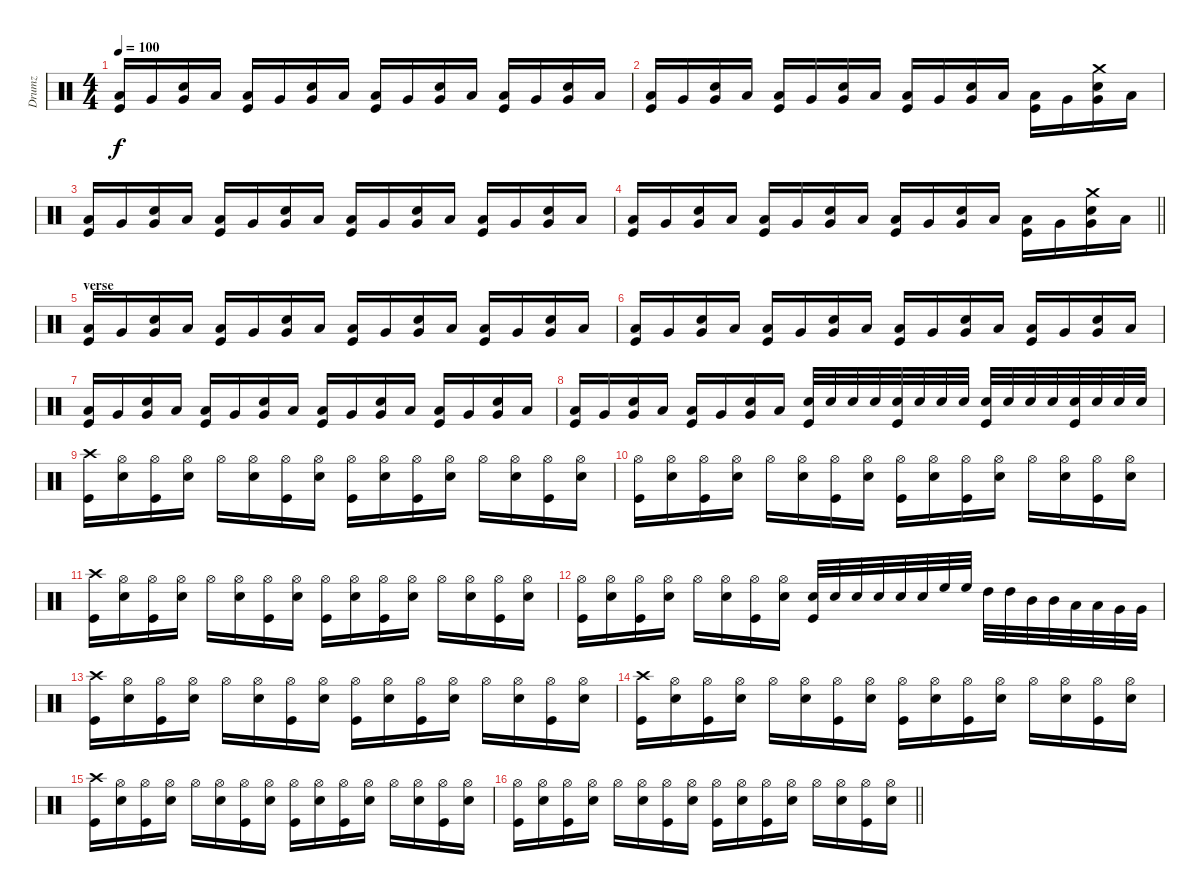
\track ("Drumz" "Drumz") {instrument percussion}
\staff {score}
\articulation defaults
\ts (4 4)
\tempo 100
\clef neutral
\ks c
("Low Tom (hit)" "Kick (hit)").16{dy f} "Very Low Tom (hit)".16 ("Electric Snare (hit)" "Very Low Tom (hit)").16 "Low Floor Tom (hit)".16 ("Low Tom (hit)" "Kick (hit)").16 "Very Low Tom (hit)".16 ("Electric Snare (hit)" "Very Low Tom (hit)").16 "Low Floor Tom (hit)".16 ("Low Tom (hit)" "Kick (hit)").16 "Very Low Tom (hit)".16 ("Electric Snare (hit)" "Very Low Tom (hit)").16 "Low Floor Tom (hit)".16 ("Low Tom (hit)" "Kick (hit)").16 "Very Low Tom (hit)".16 ("Electric Snare (hit)" "Very Low Tom (hit)").16 "Low Floor Tom (hit)".16 |
("Low Tom (hit)" "Kick (hit)").16 "Very Low Tom (hit)".16 ("Electric Snare (hit)" "Very Low Tom (hit)").16 "Low Floor Tom (hit)".16 ("Low Tom (hit)" "Kick (hit)").16 "Very Low Tom (hit)".16 ("Electric Snare (hit)" "Very Low Tom (hit)").16 "Low Floor Tom (hit)".16 ("Low Tom (hit)" "Kick (hit)").16 "Very Low Tom (hit)".16 ("Electric Snare (hit)" "Very Low Tom (hit)").16 "Low Floor Tom (hit)".16 ("Low Tom (hit)" "Kick (hit)").16 "Very Low Tom (hit)".16 ("Crash medium (hit)" "Electric Snare (hit)" "Very Low Tom (hit)").16 "Low Floor Tom (hit)".16 |
("Low Tom (hit)" "Kick (hit)").16 "Very Low Tom (hit)".16 ("Electric Snare (hit)" "Very Low Tom (hit)").16 "Low Floor Tom (hit)".16 ("Low Tom (hit)" "Kick (hit)").16 "Very Low Tom (hit)".16 ("Electric Snare (hit)" "Very Low Tom (hit)").16 "Low Floor Tom (hit)".16 ("Low Tom (hit)" "Kick (hit)").16 "Very Low Tom (hit)".16 ("Electric Snare (hit)" "Very Low Tom (hit)").16 "Low Floor Tom (hit)".16 ("Low Tom (hit)" "Kick (hit)").16 "Very Low Tom (hit)".16 ("Electric Snare (hit)" "Very Low Tom (hit)").16 "Low Floor Tom (hit)".16 |
\barLineRight lightlight
("Low Tom (hit)" "Kick (hit)").16 "Very Low Tom (hit)".16 ("Electric Snare (hit)" "Very Low Tom (hit)").16 "Low Floor Tom (hit)".16 ("Low Tom (hit)" "Kick (hit)").16 "Very Low Tom (hit)".16 ("Electric Snare (hit)" "Very Low Tom (hit)").16 "Low Floor Tom (hit)".16 ("Low Tom (hit)" "Kick (hit)").16 "Very Low Tom (hit)".16 ("Electric Snare (hit)" "Very Low Tom (hit)").16 "Low Floor Tom (hit)".16 ("Low Tom (hit)" "Kick (hit)").16 "Very Low Tom (hit)".16 ("Crash medium (hit)" "Electric Snare (hit)" "Very Low Tom (hit)").16 "Low Floor Tom (hit)".16 |
\section ("" "verse")
("Low Tom (hit)" "Kick (hit)").16 "Very Low Tom (hit)".16 ("Electric Snare (hit)" "Very Low Tom (hit)").16 "Low Floor Tom (hit)".16 ("Low Tom (hit)" "Kick (hit)").16 "Very Low Tom (hit)".16 ("Electric Snare (hit)" "Very Low Tom (hit)").16 "Low Floor Tom (hit)".16 ("Low Tom (hit)" "Kick (hit)").16 "Very Low Tom (hit)".16 ("Electric Snare (hit)" "Very Low Tom (hit)").16 "Low Floor Tom (hit)".16 ("Low Tom (hit)" "Kick (hit)").16 "Very Low Tom (hit)".16 ("Electric Snare (hit)" "Very Low Tom (hit)").16 "Low Floor Tom (hit)".16 |
("Low Tom (hit)" "Kick (hit)").16 "Very Low Tom (hit)".16 ("Electric Snare (hit)" "Very Low Tom (hit)").16 "Low Floor Tom (hit)".16 ("Low Tom (hit)" "Kick (hit)").16 "Very Low Tom (hit)".16 ("Electric Snare (hit)" "Very Low Tom (hit)").16 "Low Floor Tom (hit)".16 ("Low Tom (hit)" "Kick (hit)").16 "Very Low Tom (hit)".16 ("Electric Snare (hit)" "Very Low Tom (hit)").16 "Low Floor Tom (hit)".16 ("Low Tom (hit)" "Kick (hit)").16 "Very Low Tom (hit)".16 ("Electric Snare (hit)" "Very Low Tom (hit)").16 "Low Floor Tom (hit)".16 |
("Low Tom (hit)" "Kick (hit)").16 "Very Low Tom (hit)".16 ("Electric Snare (hit)" "Very Low Tom (hit)").16 "Low Floor Tom (hit)".16 ("Low Tom (hit)" "Kick (hit)").16 "Very Low Tom (hit)".16 ("Electric Snare (hit)" "Very Low Tom (hit)").16 "Low Floor Tom (hit)".16 ("Low Tom (hit)" "Kick (hit)").16 "Very Low Tom (hit)".16 ("Electric Snare (hit)" "Very Low Tom (hit)").16 "Low Floor Tom (hit)".16 ("Low Tom (hit)" "Kick (hit)").16 "Very Low Tom (hit)".16 ("Electric Snare (hit)" "Very Low Tom (hit)").16 "Low Floor Tom (hit)".16 |
("Low Tom (hit)" "Kick (hit)").16 "Very Low Tom (hit)".16 ("Electric Snare (hit)" "Very Low Tom (hit)").16 "Low Floor Tom (hit)".16 ("Low Tom (hit)" "Kick (hit)").16 "Very Low Tom (hit)".16 ("Electric Snare (hit)" "Very Low Tom (hit)").16 "Low Floor Tom (hit)".16 ("Electric Snare (hit)" "Kick (hit)").32 "Electric Snare (hit)".32 "Electric Snare (hit)".32 "Electric Snare (hit)".32 ("Electric Snare (hit)" "Kick (hit)").32 "Electric Snare (hit)".32 "Electric Snare (hit)".32 "Electric Snare (hit)".32 ("Electric Snare (hit)" "Kick (hit)").32 "Electric Snare (hit)".32 "Electric Snare (hit)".32 "Electric Snare (hit)".32 ("Electric Snare (hit)" "Kick (hit)").32 "Electric Snare (hit)".32 "Electric Snare (hit)".32 "Electric Snare (hit)".32 |
("Crash high (hit)" "Kick (hit)").16 ("Hi-Hat (open)" "Electric Snare (hit)").16 ("Hi-Hat (open)" "Kick (hit)").16 ("Hi-Hat (open)" "Electric Snare (hit)").16 "Hi-Hat (open)".16 ("Hi-Hat (open)" "Electric Snare (hit)").16 ("Hi-Hat (open)" "Kick (hit)").16 ("Hi-Hat (open)" "Electric Snare (hit)").16 ("Hi-Hat (open)" "Kick (hit)").16 ("Hi-Hat (open)" "Electric Snare (hit)").16 ("Hi-Hat (open)" "Kick (hit)").16 ("Hi-Hat (open)" "Electric Snare (hit)").16 "Hi-Hat (open)".16 ("Hi-Hat (open)" "Electric Snare (hit)").16 ("Hi-Hat (open)" "Kick (hit)").16 ("Hi-Hat (open)" "Electric Snare (hit)").16 |
("Hi-Hat (open)" "Kick (hit)").16 ("Hi-Hat (open)" "Electric Snare (hit)").16 ("Hi-Hat (open)" "Kick (hit)").16 ("Hi-Hat (open)" "Electric Snare (hit)").16 "Hi-Hat (open)".16 ("Hi-Hat (open)" "Electric Snare (hit)").16 ("Hi-Hat (open)" "Kick (hit)").16 ("Hi-Hat (open)" "Electric Snare (hit)").16 ("Hi-Hat (open)" "Kick (hit)").16 ("Hi-Hat (open)" "Electric Snare (hit)").16 ("Hi-Hat (open)" "Kick (hit)").16 ("Hi-Hat (open)" "Electric Snare (hit)").16 "Hi-Hat (open)".16 ("Hi-Hat (open)" "Electric Snare (hit)").16 ("Hi-Hat (open)" "Kick (hit)").16 ("Hi-Hat (open)" "Electric Snare (hit)").16 |
("Crash high (hit)" "Kick (hit)").16 ("Hi-Hat (open)" "Electric Snare (hit)").16 ("Hi-Hat (open)" "Kick (hit)").16 ("Hi-Hat (open)" "Electric Snare (hit)").16 "Hi-Hat (open)".16 ("Hi-Hat (open)" "Electric Snare (hit)").16 ("Hi-Hat (open)" "Kick (hit)").16 ("Hi-Hat (open)" "Electric Snare (hit)").16 ("Hi-Hat (open)" "Kick (hit)").16 ("Hi-Hat (open)" "Electric Snare (hit)").16 ("Hi-Hat (open)" "Kick (hit)").16 ("Hi-Hat (open)" "Electric Snare (hit)").16 "Hi-Hat (open)".16 ("Hi-Hat (open)" "Electric Snare (hit)").16 ("Hi-Hat (open)" "Kick (hit)").16 ("Hi-Hat (open)" "Electric Snare (hit)").16 |
("Hi-Hat (open)" "Kick (hit)").16 ("Hi-Hat (open)" "Electric Snare (hit)").16 ("Hi-Hat (open)" "Kick (hit)").16 ("Hi-Hat (open)" "Electric Snare (hit)").16 "Hi-Hat (open)".16 ("Hi-Hat (open)" "Electric Snare (hit)").16 ("Hi-Hat (open)" "Kick (hit)").16 ("Hi-Hat (open)" "Electric Snare (hit)").16 ("Kick (hit)" "Electric Snare (hit)").32 "Electric Snare (hit)".32 "Electric Snare (hit)".32 "Electric Snare (hit)".32 "Electric Snare (hit)".32 "Electric Snare (hit)".32 "High Floor Tom (hit)".32 "High Floor Tom (hit)".32 "High Tom (hit)".32 "High Tom (hit)".32 "Mid Tom (hit)".32 "Mid Tom (hit)".32 "Low Tom (hit)".32 "Low Tom (hit)".32 "Very Low Tom (hit)".32 "Very Low Tom (hit)".32 |
("Crash high (hit)" "Kick (hit)").16 ("Hi-Hat (open)" "Electric Snare (hit)").16 ("Hi-Hat (open)" "Kick (hit)").16 ("Hi-Hat (open)" "Electric Snare (hit)").16 "Hi-Hat (open)".16 ("Hi-Hat (open)" "Electric Snare (hit)").16 ("Hi-Hat (open)" "Kick (hit)").16 ("Hi-Hat (open)" "Electric Snare (hit)").16 ("Hi-Hat (open)" "Kick (hit)").16 ("Hi-Hat (open)" "Electric Snare (hit)").16 ("Hi-Hat (open)" "Kick (hit)").16 ("Hi-Hat (open)" "Electric Snare (hit)").16 "Hi-Hat (open)".16 ("Hi-Hat (open)" "Electric Snare (hit)").16 ("Hi-Hat (open)" "Kick (hit)").16 ("Hi-Hat (open)" "Electric Snare (hit)").16 |
("Crash high (hit)" "Kick (hit)").16 ("Hi-Hat (open)" "Electric Snare (hit)").16 ("Hi-Hat (open)" "Kick (hit)").16 ("Hi-Hat (open)" "Electric Snare (hit)").16 "Hi-Hat (open)".16 ("Hi-Hat (open)" "Electric Snare (hit)").16 ("Hi-Hat (open)" "Kick (hit)").16 ("Hi-Hat (open)" "Electric Snare (hit)").16 ("Hi-Hat (open)" "Kick (hit)").16 ("Hi-Hat (open)" "Electric Snare (hit)").16 ("Hi-Hat (open)" "Kick (hit)").16 ("Hi-Hat (open)" "Electric Snare (hit)").16 "Hi-Hat (open)".16 ("Hi-Hat (open)" "Electric Snare (hit)").16 ("Hi-Hat (open)" "Kick (hit)").16 ("Hi-Hat (open)" "Electric Snare (hit)").16 |
("Crash high (hit)" "Kick (hit)").16 ("Hi-Hat (open)" "Electric Snare (hit)").16 ("Hi-Hat (open)" "Kick (hit)").16 ("Hi-Hat (open)" "Electric Snare (hit)").16 "Hi-Hat (open)".16 ("Hi-Hat (open)" "Electric Snare (hit)").16 ("Hi-Hat (open)" "Kick (hit)").16 ("Hi-Hat (open)" "Electric Snare (hit)").16 ("Hi-Hat (open)" "Kick (hit)").16 ("Hi-Hat (open)" "Electric Snare (hit)").16 ("Hi-Hat (open)" "Kick (hit)").16 ("Hi-Hat (open)" "Electric Snare (hit)").16 "Hi-Hat (open)".16 ("Hi-Hat (open)" "Electric Snare (hit)").16 ("Hi-Hat (open)" "Kick (hit)").16 ("Hi-Hat (open)" "Electric Snare (hit)").16 |
\barLineRight lightlight
("Hi-Hat (open)" "Kick (hit)").16 ("Hi-Hat (open)" "Electric Snare (hit)").16 ("Hi-Hat (open)" "Kick (hit)").16 ("Hi-Hat (open)" "Electric Snare (hit)").16 "Hi-Hat (open)".16 ("Hi-Hat (open)" "Electric Snare (hit)").16 ("Hi-Hat (open)" "Kick (hit)").16 ("Hi-Hat (open)" "Electric Snare (hit)").16 ("Hi-Hat (open)" "Kick (hit)").16 ("Hi-Hat (open)" "Electric Snare (hit)").16 ("Hi-Hat (open)" "Kick (hit)").16 ("Hi-Hat (open)" "Electric Snare (hit)").16 "Hi-Hat (open)".16 ("Hi-Hat (open)" "Electric Snare (hit)").16 ("Hi-Hat (open)" "Kick (hit)").16 ("Hi-Hat (open)" "Electric Snare (hit)").16
